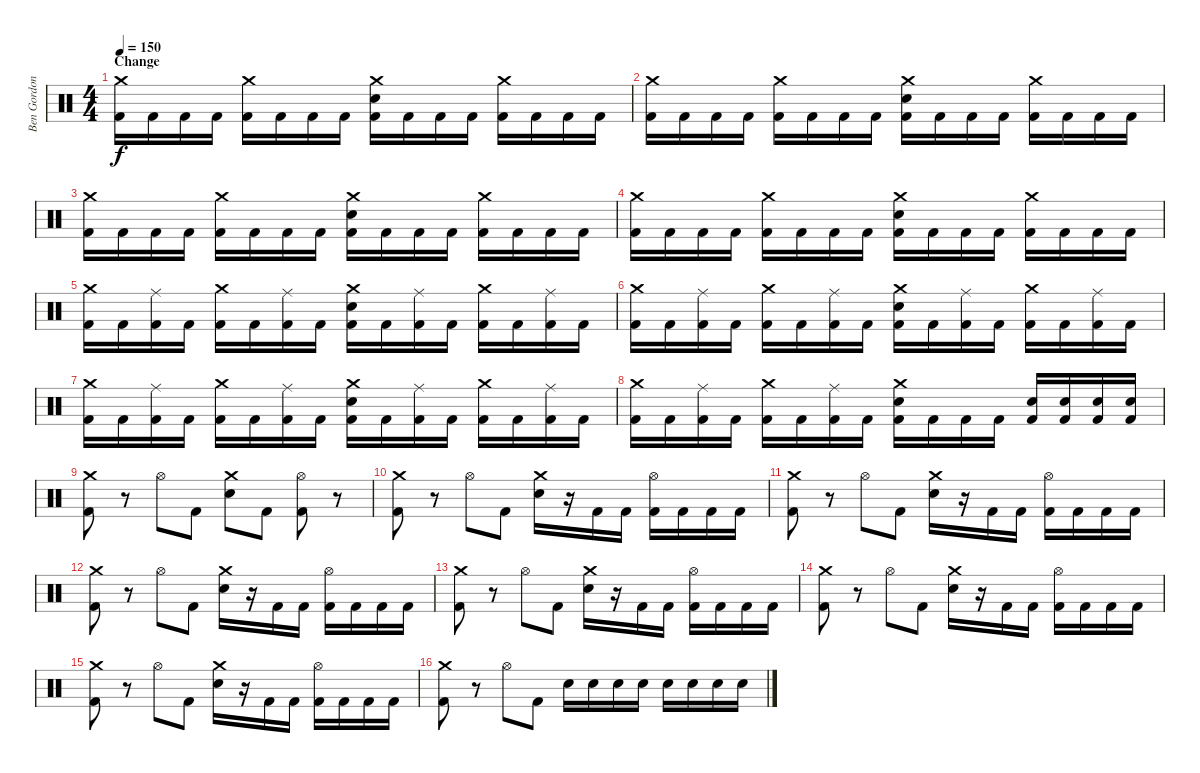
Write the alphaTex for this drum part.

\track ("Ben Gordon" "Ben Gordon") {instrument percussion}
\staff {score}
\articulation defaults
\ts (4 4)
\section ("" "Change")
\tempo 150
\clef neutral
\ks c
("Crash medium (hit)" "Kick (hit) 2").16{dy f} "Kick (hit) 2".16 "Kick (hit) 2".16 "Kick (hit) 2".16 ("Crash medium (hit)" "Kick (hit) 2").16 "Kick (hit) 2".16 "Kick (hit) 2".16 "Kick (hit) 2".16 ("Crash medium (hit)" "Electric Snare (hit)" "Kick (hit) 2").16 "Kick (hit) 2".16 "Kick (hit) 2".16 "Kick (hit) 2".16 ("Crash medium (hit)" "Kick (hit) 2").16 "Kick (hit) 2".16 "Kick (hit) 2".16 "Kick (hit) 2".16 |
("Crash medium (hit)" "Kick (hit) 2").16 "Kick (hit) 2".16 "Kick (hit) 2".16 "Kick (hit) 2".16 ("Crash medium (hit)" "Kick (hit) 2").16 "Kick (hit) 2".16 "Kick (hit) 2".16 "Kick (hit) 2".16 ("Crash medium (hit)" "Electric Snare (hit)" "Kick (hit) 2").16 "Kick (hit) 2".16 "Kick (hit) 2".16 "Kick (hit) 2".16 ("Crash medium (hit)" "Kick (hit) 2").16 "Kick (hit) 2".16 "Kick (hit) 2".16 "Kick (hit) 2".16 |
("Crash medium (hit)" "Kick (hit) 2").16 "Kick (hit) 2".16 "Kick (hit) 2".16 "Kick (hit) 2".16 ("Crash medium (hit)" "Kick (hit) 2").16 "Kick (hit) 2".16 "Kick (hit) 2".16 "Kick (hit) 2".16 ("Crash medium (hit)" "Electric Snare (hit)" "Kick (hit) 2").16 "Kick (hit) 2".16 "Kick (hit) 2".16 "Kick (hit) 2".16 ("Crash medium (hit)" "Kick (hit) 2").16 "Kick (hit) 2".16 "Kick (hit) 2".16 "Kick (hit) 2".16 |
("Crash medium (hit)" "Kick (hit) 2").16 "Kick (hit) 2".16 "Kick (hit) 2".16 "Kick (hit) 2".16 ("Crash medium (hit)" "Kick (hit) 2").16 "Kick (hit) 2".16 "Kick (hit) 2".16 "Kick (hit) 2".16 ("Crash medium (hit)" "Electric Snare (hit)" "Kick (hit) 2").16 "Kick (hit) 2".16 "Kick (hit) 2".16 "Kick (hit) 2".16 ("Crash medium (hit)" "Kick (hit) 2").16 "Kick (hit) 2".16 "Kick (hit) 2".16 "Kick (hit) 2".16 |
("Crash medium (hit)" "Kick (hit) 2").16 "Kick (hit) 2".16 ("Ride (middle)" "Kick (hit) 2").16 "Kick (hit) 2".16 ("Crash medium (hit)" "Kick (hit) 2").16 "Kick (hit) 2".16 ("Ride (middle)" "Kick (hit) 2").16 "Kick (hit) 2".16 ("Crash medium (hit)" "Electric Snare (hit)" "Kick (hit) 2").16 "Kick (hit) 2".16 ("Ride (middle)" "Kick (hit) 2").16 "Kick (hit) 2".16 ("Crash medium (hit)" "Kick (hit) 2").16 "Kick (hit) 2".16 ("Ride (middle)" "Kick (hit) 2").16 "Kick (hit) 2".16 |
("Crash medium (hit)" "Kick (hit) 2").16 "Kick (hit) 2".16 ("Ride (middle)" "Kick (hit) 2").16 "Kick (hit) 2".16 ("Crash medium (hit)" "Kick (hit) 2").16 "Kick (hit) 2".16 ("Ride (middle)" "Kick (hit) 2").16 "Kick (hit) 2".16 ("Crash medium (hit)" "Electric Snare (hit)" "Kick (hit) 2").16 "Kick (hit) 2".16 ("Ride (middle)" "Kick (hit) 2").16 "Kick (hit) 2".16 ("Crash medium (hit)" "Kick (hit) 2").16 "Kick (hit) 2".16 ("Ride (middle)" "Kick (hit) 2").16 "Kick (hit) 2".16 |
("Crash medium (hit)" "Kick (hit) 2").16 "Kick (hit) 2".16 ("Ride (middle)" "Kick (hit) 2").16 "Kick (hit) 2".16 ("Crash medium (hit)" "Kick (hit) 2").16 "Kick (hit) 2".16 ("Ride (middle)" "Kick (hit) 2").16 "Kick (hit) 2".16 ("Crash medium (hit)" "Electric Snare (hit)" "Kick (hit) 2").16 "Kick (hit) 2".16 ("Ride (middle)" "Kick (hit) 2").16 "Kick (hit) 2".16 ("Crash medium (hit)" "Kick (hit) 2").16 "Kick (hit) 2".16 ("Ride (middle)" "Kick (hit) 2").16 "Kick (hit) 2".16 |
("Crash medium (hit)" "Kick (hit) 2").16 "Kick (hit) 2".16 ("Ride (middle)" "Kick (hit) 2").16 "Kick (hit) 2".16 ("Crash medium (hit)" "Kick (hit) 2").16 "Kick (hit) 2".16 ("Ride (middle)" "Kick (hit) 2").16 "Kick (hit) 2".16 ("Crash medium (hit)" "Electric Snare (hit)" "Kick (hit) 2").16 "Kick (hit) 2".16 "Kick (hit) 2".16 "Kick (hit) 2".16 ("Electric Snare (hit)" "Kick (hit) 2").16 ("Electric Snare (hit)" "Kick (hit) 2").16 ("Electric Snare (hit)" "Kick (hit) 2").16 ("Electric Snare (hit)" "Kick (hit) 2").16 |
("Crash medium (hit)" "Kick (hit) 2").8 r.8 "Hi-Hat (open)".8 "Kick (hit) 2".8 ("Crash medium (hit)" "Electric Snare (hit)").8 "Kick (hit) 2".8 ("Hi-Hat (open)" "Kick (hit) 2").8 r.8 |
("Crash medium (hit)" "Kick (hit) 2").8 r.8 "Hi-Hat (open)".8 "Kick (hit) 2".8 ("Crash medium (hit)" "Electric Snare (hit)").16 r.16 "Kick (hit) 2".16 "Kick (hit) 2".16 ("Hi-Hat (open)" "Kick (hit) 2").16 "Kick (hit) 2".16 "Kick (hit) 2".16 "Kick (hit) 2".16 |
("Crash medium (hit)" "Kick (hit) 2").8 r.8 "Hi-Hat (open)".8 "Kick (hit) 2".8 ("Crash medium (hit)" "Electric Snare (hit)").16 r.16 "Kick (hit) 2".16 "Kick (hit) 2".16 ("Hi-Hat (open)" "Kick (hit) 2").16 "Kick (hit) 2".16 "Kick (hit) 2".16 "Kick (hit) 2".16 |
("Crash medium (hit)" "Kick (hit) 2").8 r.8 "Hi-Hat (open)".8 "Kick (hit) 2".8 ("Crash medium (hit)" "Electric Snare (hit)").16 r.16 "Kick (hit) 2".16 "Kick (hit) 2".16 ("Hi-Hat (open)" "Kick (hit) 2").16 "Kick (hit) 2".16 "Kick (hit) 2".16 "Kick (hit) 2".16 |
("Crash medium (hit)" "Kick (hit) 2").8 r.8 "Hi-Hat (open)".8 "Kick (hit) 2".8 ("Crash medium (hit)" "Electric Snare (hit)").16 r.16 "Kick (hit) 2".16 "Kick (hit) 2".16 ("Hi-Hat (open)" "Kick (hit) 2").16 "Kick (hit) 2".16 "Kick (hit) 2".16 "Kick (hit) 2".16 |
("Crash medium (hit)" "Kick (hit) 2").8 r.8 "Hi-Hat (open)".8 "Kick (hit) 2".8 ("Crash medium (hit)" "Electric Snare (hit)").16 r.16 "Kick (hit) 2".16 "Kick (hit) 2".16 ("Hi-Hat (open)" "Kick (hit) 2").16 "Kick (hit) 2".16 "Kick (hit) 2".16 "Kick (hit) 2".16 |
("Crash medium (hit)" "Kick (hit) 2").8 r.8 "Hi-Hat (open)".8 "Kick (hit) 2".8 ("Crash medium (hit)" "Electric Snare (hit)").16 r.16 "Kick (hit) 2".16 "Kick (hit) 2".16 ("Hi-Hat (open)" "Kick (hit) 2").16 "Kick (hit) 2".16 "Kick (hit) 2".16 "Kick (hit) 2".16 |
("Crash medium (hit)" "Kick (hit) 2").8 r.8 "Hi-Hat (open)".8 "Kick (hit) 2".8 "Electric Snare (hit)".16 "Electric Snare (hit)".16 "Electric Snare (hit)".16 "Electric Snare (hit)".16 "Electric Snare (hit)".16 "Electric Snare (hit)".16 "Electric Snare (hit)".16 "Electric Snare (hit)".16
